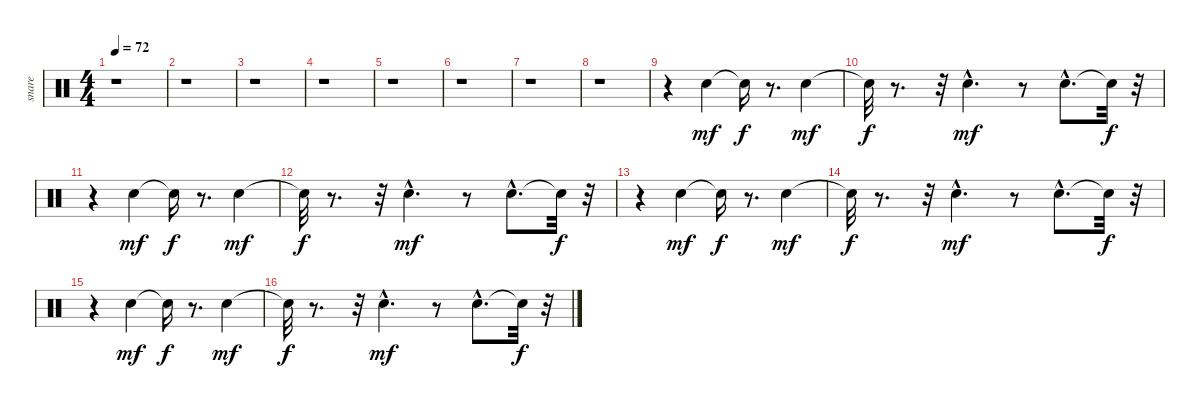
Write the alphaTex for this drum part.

\track ("snare" "snare") {instrument percussion}
\staff {score}
\articulation defaults
\ts (4 4)
\tempo 72
\clef neutral
\ks c
r.1{dy mf} |
r.1 |
r.1 |
r.1 |
r.1 |
r.1 |
r.1 |
r.1 |
r.4 "Snare (hit) 2".4 "Snare (hit)"{t}.16{dy f} r.8{d} "Snare (hit) 2".4{dy mf} |
"Snare (hit)"{t}.32{dy f} r.8{d} r.32 "Snare (hit) 2"{hac}.4{d dy mf} r.8 "Snare (hit) 2"{hac}.8{d} "Snare (hit)"{t}.32{dy f} r.32 |
r.4 "Snare (hit) 2".4{dy mf} "Snare (hit)"{t}.16{dy f} r.8{d} "Snare (hit) 2".4{dy mf} |
"Snare (hit)"{t}.32{dy f} r.8{d} r.32 "Snare (hit) 2"{hac}.4{d dy mf} r.8 "Snare (hit) 2"{hac}.8{d} "Snare (hit)"{t}.32{dy f} r.32 |
r.4 "Snare (hit) 2".4{dy mf} "Snare (hit)"{t}.16{dy f} r.8{d} "Snare (hit) 2".4{dy mf} |
"Snare (hit)"{t}.32{dy f} r.8{d} r.32 "Snare (hit) 2"{hac}.4{d dy mf} r.8 "Snare (hit) 2"{hac}.8{d} "Snare (hit)"{t}.32{dy f} r.32 |
r.4 "Snare (hit) 2".4{dy mf} "Snare (hit)"{t}.16{dy f} r.8{d} "Snare (hit) 2".4{dy mf} |
"Snare (hit)"{t}.32{dy f} r.8{d} r.32 "Snare (hit) 2"{hac}.4{d dy mf} r.8 "Snare (hit) 2"{hac}.8{d} "Snare (hit)"{t}.32{dy f} r.32
